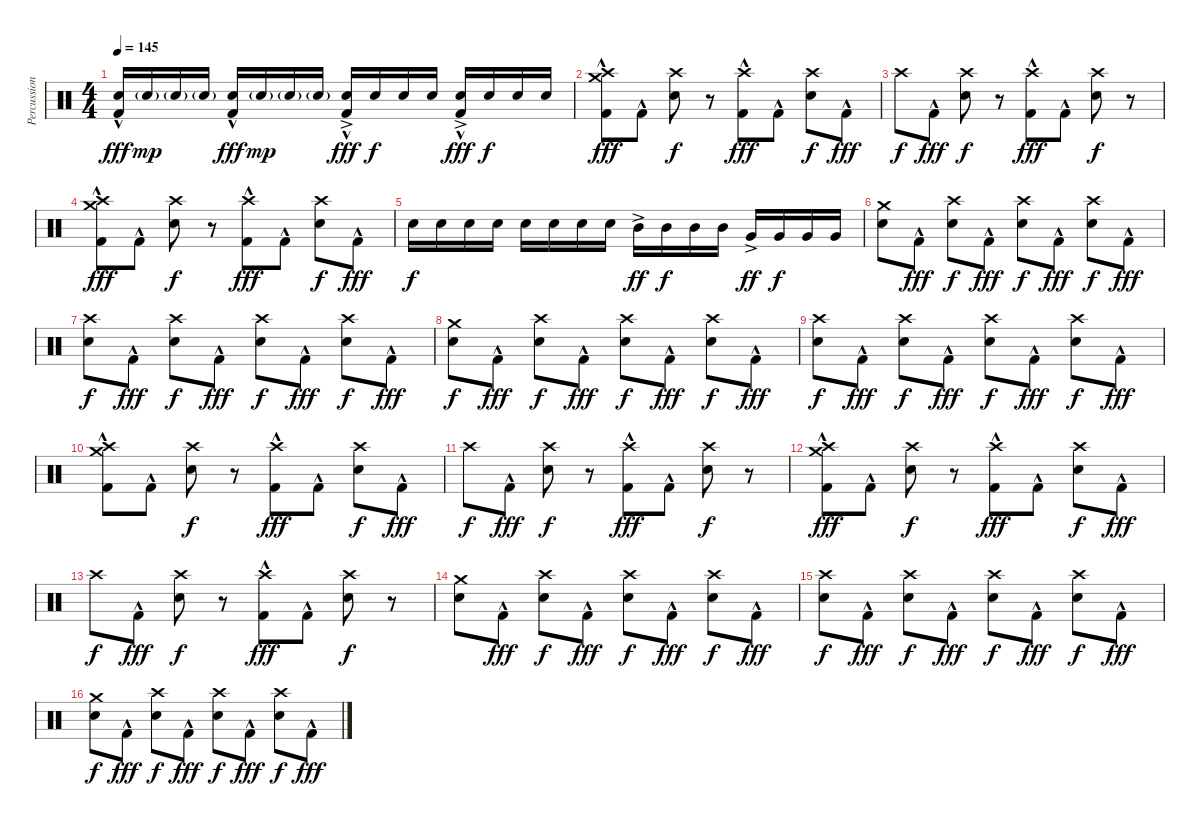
\track ("Percussion" "Percussion") {instrument percussion}
\staff {score}
\articulation defaults
\ts (4 4)
\tempo 145
\clef neutral
\ks c
("Snare (hit) 2" "Kick (hit) 2"{hac}).16{dy fff} "Snare (hit) 2"{g}.16{dy mp} "Snare (hit) 2"{g}.16 "Snare (hit) 2"{g}.16 ("Snare (hit) 2" "Kick (hit) 2"{hac}).16{dy fff} "Snare (hit) 2"{g}.16{dy mp} "Snare (hit) 2"{g}.16 "Snare (hit) 2"{g}.16 ("Snare (hit) 2"{ac} "Kick (hit) 2"{hac}).16{dy fff} "Snare (hit) 2".16{dy f} "Snare (hit) 2".16 "Snare (hit) 2".16 ("Snare (hit) 2"{ac} "Kick (hit) 2"{hac}).16{dy fff} "Snare (hit) 2".16{dy f} "Snare (hit) 2".16 "Snare (hit) 2".16 |
("Crash medium (hit)" "Crash high (hit)" "Kick (hit) 2"{hac}).8{dy fff} "Kick (hit) 2"{hac}.8 ("Crash high (hit)" "Snare (hit) 2").8{dy f} r.8 ("Crash high (hit)" "Kick (hit) 2"{hac}).8{dy fff} "Kick (hit) 2"{hac}.8 ("Crash high (hit)" "Snare (hit) 2").8{dy f} "Kick (hit) 2"{hac}.8{dy fff} |
"Crash high (hit)".8{dy f} "Kick (hit) 2"{hac}.8{dy fff} ("Crash high (hit)" "Snare (hit) 2").8{dy f} r.8 ("Crash high (hit)" "Kick (hit) 2"{hac}).8{dy fff} "Kick (hit) 2"{hac}.8 ("Crash high (hit)" "Snare (hit) 2").8{dy f} r.8 |
("Crash medium (hit)" "Crash high (hit)" "Kick (hit) 2"{hac}).8{dy fff} "Kick (hit) 2"{hac}.8 ("Crash high (hit)" "Snare (hit) 2").8{dy f} r.8 ("Crash high (hit)" "Kick (hit) 2"{hac}).8{dy fff} "Kick (hit) 2"{hac}.8 ("Crash high (hit)" "Snare (hit) 2").8{dy f} "Kick (hit) 2"{hac}.8{dy fff} |
"Snare (hit) 2".16{dy f} "Snare (hit) 2".16 "Snare (hit) 2".16 "Snare (hit) 2".16 "Snare (hit) 2".16 "Snare (hit) 2".16 "Snare (hit) 2".16 "Snare (hit) 2".16 "Mid Tom (hit)"{ac}.16{dy ff} "Mid Tom (hit)".16{dy f} "Mid Tom (hit)".16 "Mid Tom (hit)".16 "Very Low Tom (hit)"{ac}.16{dy ff} "Very Low Tom (hit)".16{dy f} "Very Low Tom (hit)".16 "Very Low Tom (hit)".16 |
("Crash medium (hit)" "Snare (hit) 2").8 "Kick (hit) 2"{hac}.8{dy fff} ("Crash high (hit)" "Snare (hit) 2").8{dy f} "Kick (hit) 2"{hac}.8{dy fff} ("Crash high (hit)" "Snare (hit) 2").8{dy f} "Kick (hit) 2"{hac}.8{dy fff} ("Crash high (hit)" "Snare (hit) 2").8{dy f} "Kick (hit) 2"{hac}.8{dy fff} |
("Crash high (hit)" "Snare (hit) 2").8{dy f} "Kick (hit) 2"{hac}.8{dy fff} ("Crash high (hit)" "Snare (hit) 2").8{dy f} "Kick (hit) 2"{hac}.8{dy fff} ("Crash high (hit)" "Snare (hit) 2").8{dy f} "Kick (hit) 2"{hac}.8{dy fff} ("Crash high (hit)" "Snare (hit) 2").8{dy f} "Kick (hit) 2"{hac}.8{dy fff} |
("Crash medium (hit)" "Snare (hit) 2").8{dy f} "Kick (hit) 2"{hac}.8{dy fff} ("Crash high (hit)" "Snare (hit) 2").8{dy f} "Kick (hit) 2"{hac}.8{dy fff} ("Crash high (hit)" "Snare (hit) 2").8{dy f} "Kick (hit) 2"{hac}.8{dy fff} ("Crash high (hit)" "Snare (hit) 2").8{dy f} "Kick (hit) 2"{hac}.8{dy fff} |
("Crash high (hit)" "Snare (hit) 2").8{dy f} "Kick (hit) 2"{hac}.8{dy fff} ("Crash high (hit)" "Snare (hit) 2").8{dy f} "Kick (hit) 2"{hac}.8{dy fff} ("Crash high (hit)" "Snare (hit) 2").8{dy f} "Kick (hit) 2"{hac}.8{dy fff} ("Crash high (hit)" "Snare (hit) 2").8{dy f} "Kick (hit) 2"{hac}.8{dy fff} |
("Crash medium (hit)" "Crash high (hit)" "Kick (hit) 2"{hac}).8 "Kick (hit) 2"{hac}.8 ("Crash high (hit)" "Snare (hit) 2").8{dy f} r.8 ("Crash high (hit)" "Kick (hit) 2"{hac}).8{dy fff} "Kick (hit) 2"{hac}.8 ("Crash high (hit)" "Snare (hit) 2").8{dy f} "Kick (hit) 2"{hac}.8{dy fff} |
"Crash high (hit)".8{dy f} "Kick (hit) 2"{hac}.8{dy fff} ("Crash high (hit)" "Snare (hit) 2").8{dy f} r.8 ("Crash high (hit)" "Kick (hit) 2"{hac}).8{dy fff} "Kick (hit) 2"{hac}.8 ("Crash high (hit)" "Snare (hit) 2").8{dy f} r.8 |
("Crash medium (hit)" "Crash high (hit)" "Kick (hit) 2"{hac}).8{dy fff} "Kick (hit) 2"{hac}.8 ("Crash high (hit)" "Snare (hit) 2").8{dy f} r.8 ("Crash high (hit)" "Kick (hit) 2"{hac}).8{dy fff} "Kick (hit) 2"{hac}.8 ("Crash high (hit)" "Snare (hit) 2").8{dy f} "Kick (hit) 2"{hac}.8{dy fff} |
"Crash high (hit)".8{dy f} "Kick (hit) 2"{hac}.8{dy fff} ("Crash high (hit)" "Snare (hit) 2").8{dy f} r.8 ("Crash high (hit)" "Kick (hit) 2"{hac}).8{dy fff} "Kick (hit) 2"{hac}.8 ("Crash high (hit)" "Snare (hit) 2").8{dy f} r.8 |
("Crash medium (hit)" "Snare (hit) 2").8 "Kick (hit) 2"{hac}.8{dy fff} ("Crash high (hit)" "Snare (hit) 2").8{dy f} "Kick (hit) 2"{hac}.8{dy fff} ("Crash high (hit)" "Snare (hit) 2").8{dy f} "Kick (hit) 2"{hac}.8{dy fff} ("Crash high (hit)" "Snare (hit) 2").8{dy f} "Kick (hit) 2"{hac}.8{dy fff} |
("Crash high (hit)" "Snare (hit) 2").8{dy f} "Kick (hit) 2"{hac}.8{dy fff} ("Crash high (hit)" "Snare (hit) 2").8{dy f} "Kick (hit) 2"{hac}.8{dy fff} ("Crash high (hit)" "Snare (hit) 2").8{dy f} "Kick (hit) 2"{hac}.8{dy fff} ("Crash high (hit)" "Snare (hit) 2").8{dy f} "Kick (hit) 2"{hac}.8{dy fff} |
("Crash medium (hit)" "Snare (hit) 2").8{dy f} "Kick (hit) 2"{hac}.8{dy fff} ("Crash high (hit)" "Snare (hit) 2").8{dy f} "Kick (hit) 2"{hac}.8{dy fff} ("Crash high (hit)" "Snare (hit) 2").8{dy f} "Kick (hit) 2"{hac}.8{dy fff} ("Crash high (hit)" "Snare (hit) 2").8{dy f} "Kick (hit) 2"{hac}.8{dy fff}
